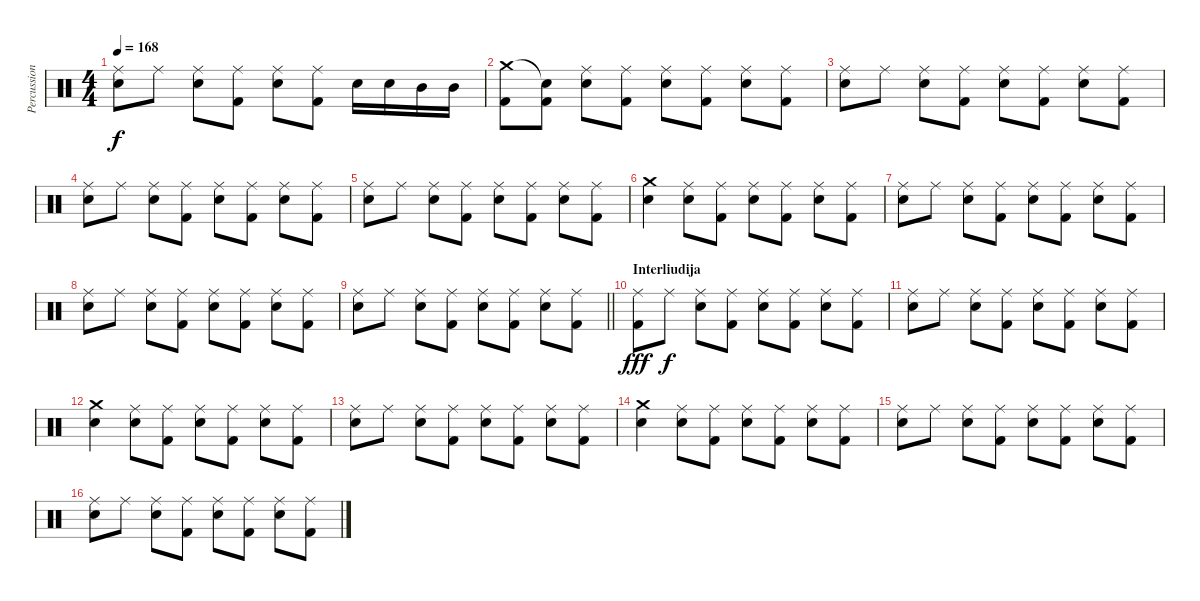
\track ("Percussion" "Percussion") {instrument percussion}
\staff {score}
\articulation defaults
\ts (4 4)
\tempo 168
\clef neutral
\ks c
("Ride (middle)" "Snare (hit) 2").8{dy f} "Ride (middle)".8 ("Ride (middle)" "Snare (hit) 2").8 ("Ride (middle)" "Kick (hit) 2").8 ("Ride (middle)" "Snare (hit) 2").8 ("Ride (middle)" "Kick (hit) 2").8 "Snare (hit) 2".16 "Snare (hit) 2".16 "Mid Tom (hit)".16 "Mid Tom (hit)".16 |
("Crash medium (hit)" "Kick (hit) 2").8 ("Snare (hit)"{t} "Kick (hit) 2").8 ("Ride (middle)" "Snare (hit) 2").8 ("Ride (middle)" "Kick (hit) 2").8 ("Ride (middle)" "Snare (hit) 2").8 ("Ride (middle)" "Kick (hit) 2").8 ("Ride (middle)" "Snare (hit) 2").8 ("Ride (middle)" "Kick (hit) 2").8 |
("Ride (middle)" "Snare (hit) 2").8 "Ride (middle)".8 ("Ride (middle)" "Snare (hit) 2").8 ("Ride (middle)" "Kick (hit) 2").8 ("Ride (middle)" "Snare (hit) 2").8 ("Ride (middle)" "Kick (hit) 2").8 ("Ride (middle)" "Snare (hit) 2").8 ("Ride (middle)" "Kick (hit) 2").8 |
("Ride (middle)" "Snare (hit) 2").8 "Ride (middle)".8 ("Ride (middle)" "Snare (hit) 2").8 ("Ride (middle)" "Kick (hit) 2").8 ("Ride (middle)" "Snare (hit) 2").8 ("Ride (middle)" "Kick (hit) 2").8 ("Ride (middle)" "Snare (hit) 2").8 ("Ride (middle)" "Kick (hit) 2").8 |
("Ride (middle)" "Snare (hit) 2").8 "Ride (middle)".8 ("Ride (middle)" "Snare (hit) 2").8 ("Ride (middle)" "Kick (hit) 2").8 ("Ride (middle)" "Snare (hit) 2").8 ("Ride (middle)" "Kick (hit) 2").8 ("Ride (middle)" "Snare (hit) 2").8 ("Ride (middle)" "Kick (hit) 2").8 |
("Crash medium (hit)" "Snare (hit) 2").4 ("Ride (middle)" "Snare (hit) 2").8 ("Ride (middle)" "Kick (hit) 2").8 ("Ride (middle)" "Snare (hit) 2").8 ("Ride (middle)" "Kick (hit) 2").8 ("Ride (middle)" "Snare (hit) 2").8 ("Ride (middle)" "Kick (hit) 2").8 |
("Ride (middle)" "Snare (hit) 2").8 "Ride (middle)".8 ("Ride (middle)" "Snare (hit) 2").8 ("Ride (middle)" "Kick (hit) 2").8 ("Ride (middle)" "Snare (hit) 2").8 ("Ride (middle)" "Kick (hit) 2").8 ("Ride (middle)" "Snare (hit) 2").8 ("Ride (middle)" "Kick (hit) 2").8 |
("Ride (middle)" "Snare (hit) 2").8 "Ride (middle)".8 ("Ride (middle)" "Snare (hit) 2").8 ("Ride (middle)" "Kick (hit) 2").8 ("Ride (middle)" "Snare (hit) 2").8 ("Ride (middle)" "Kick (hit) 2").8 ("Ride (middle)" "Snare (hit) 2").8 ("Ride (middle)" "Kick (hit) 2").8 |
\barLineRight lightlight
("Ride (middle)" "Snare (hit) 2").8 "Ride (middle)".8 ("Ride (middle)" "Snare (hit) 2").8 ("Ride (middle)" "Kick (hit) 2").8 ("Ride (middle)" "Snare (hit) 2").8 ("Ride (middle)" "Kick (hit) 2").8 ("Ride (middle)" "Snare (hit) 2").8 ("Ride (middle)" "Kick (hit) 2").8 |
\section ("" "Interliudija")
("Ride (middle)" "Kick (hit) 2").8{dy fff} "Ride (middle)".8{dy f} ("Ride (middle)" "Snare (hit) 2").8 ("Ride (middle)" "Kick (hit) 2").8 ("Ride (middle)" "Snare (hit) 2").8 ("Ride (middle)" "Kick (hit) 2").8 ("Ride (middle)" "Snare (hit) 2").8 ("Ride (middle)" "Kick (hit) 2").8 |
("Ride (middle)" "Snare (hit) 2").8 "Ride (middle)".8 ("Ride (middle)" "Snare (hit) 2").8 ("Ride (middle)" "Kick (hit) 2").8 ("Ride (middle)" "Snare (hit) 2").8 ("Ride (middle)" "Kick (hit) 2").8 ("Ride (middle)" "Snare (hit) 2").8 ("Ride (middle)" "Kick (hit) 2").8 |
("Crash medium (hit)" "Snare (hit) 2").4 ("Ride (middle)" "Snare (hit) 2").8 ("Ride (middle)" "Kick (hit) 2").8 ("Ride (middle)" "Snare (hit) 2").8 ("Ride (middle)" "Kick (hit) 2").8 ("Ride (middle)" "Snare (hit) 2").8 ("Ride (middle)" "Kick (hit) 2").8 |
("Ride (middle)" "Snare (hit) 2").8 "Ride (middle)".8 ("Ride (middle)" "Snare (hit) 2").8 ("Ride (middle)" "Kick (hit) 2").8 ("Ride (middle)" "Snare (hit) 2").8 ("Ride (middle)" "Kick (hit) 2").8 ("Ride (middle)" "Snare (hit) 2").8 ("Ride (middle)" "Kick (hit) 2").8 |
("Crash medium (hit)" "Snare (hit) 2").4 ("Ride (middle)" "Snare (hit) 2").8 ("Ride (middle)" "Kick (hit) 2").8 ("Ride (middle)" "Snare (hit) 2").8 ("Ride (middle)" "Kick (hit) 2").8 ("Ride (middle)" "Snare (hit) 2").8 ("Ride (middle)" "Kick (hit) 2").8 |
("Ride (middle)" "Snare (hit) 2").8 "Ride (middle)".8 ("Ride (middle)" "Snare (hit) 2").8 ("Ride (middle)" "Kick (hit) 2").8 ("Ride (middle)" "Snare (hit) 2").8 ("Ride (middle)" "Kick (hit) 2").8 ("Ride (middle)" "Snare (hit) 2").8 ("Ride (middle)" "Kick (hit) 2").8 |
("Ride (middle)" "Snare (hit) 2").8 "Ride (middle)".8 ("Ride (middle)" "Snare (hit) 2").8 ("Ride (middle)" "Kick (hit) 2").8 ("Ride (middle)" "Snare (hit) 2").8 ("Ride (middle)" "Kick (hit) 2").8 ("Ride (middle)" "Snare (hit) 2").8 ("Ride (middle)" "Kick (hit) 2").8
